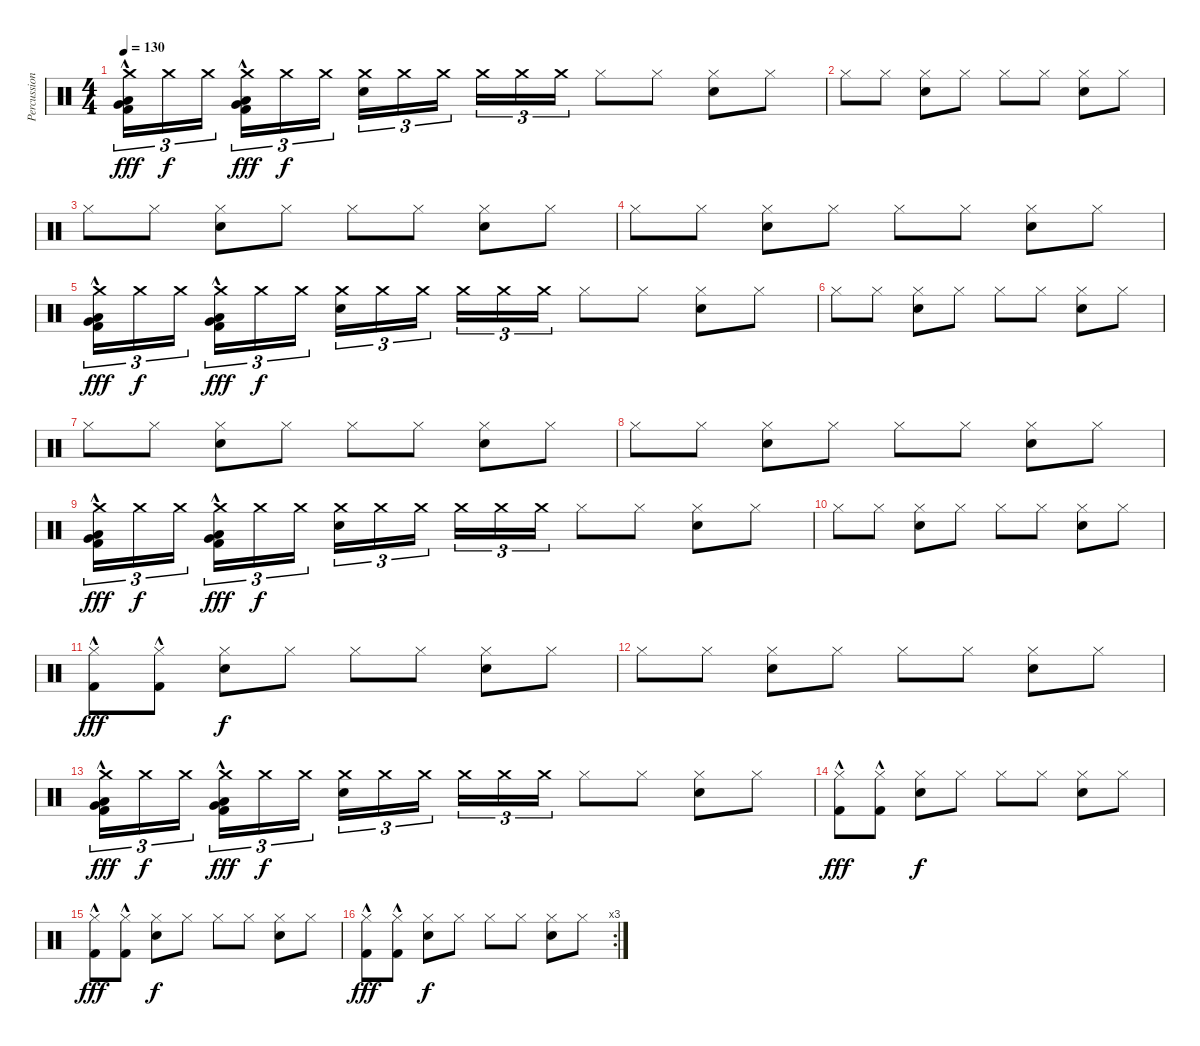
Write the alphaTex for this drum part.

\track ("Percussion" "Percussion") {instrument percussion}
\staff {score}
\articulation defaults
\ts (4 4)
\tempo 130
\clef neutral
\ks c
("Crash medium (hit)" "Low Floor Tom (hit)"{hac} "Very Low Tom (hit)"{hac} "Kick (hit) 2"{hac}).16{tu (3 2) dy fff} "Crash medium (hit)".16{tu (3 2) dy f} "Crash medium (hit)".16{tu (3 2) beam splitsecondary} ("Crash medium (hit)" "Low Floor Tom (hit)"{hac} "Very Low Tom (hit)"{hac} "Kick (hit) 2"{hac}).16{tu (3 2) dy fff} "Crash medium (hit)".16{tu (3 2) dy f} "Crash medium (hit)".16{tu (3 2)} ("Crash medium (hit)" "Snare (hit) 2").16{tu (3 2)} "Crash medium (hit)".16{tu (3 2)} "Crash medium (hit)".16{tu (3 2) beam splitsecondary} "Crash medium (hit)".16{tu (3 2)} "Crash medium (hit)".16{tu (3 2)} "Crash medium (hit)".16{tu (3 2)} "Hi-Hat (closed)".8 "Hi-Hat (closed)".8 ("Hi-Hat (closed)" "Snare (hit) 2").8 "Hi-Hat (closed)".8 |
"Hi-Hat (closed)".8 "Hi-Hat (closed)".8 ("Hi-Hat (closed)" "Snare (hit) 2").8 "Hi-Hat (closed)".8 "Hi-Hat (closed)".8 "Hi-Hat (closed)".8 ("Hi-Hat (closed)" "Snare (hit) 2").8 "Hi-Hat (closed)".8 |
"Hi-Hat (closed)".8 "Hi-Hat (closed)".8 ("Hi-Hat (closed)" "Snare (hit) 2").8 "Hi-Hat (closed)".8 "Hi-Hat (closed)".8 "Hi-Hat (closed)".8 ("Hi-Hat (closed)" "Snare (hit) 2").8 "Hi-Hat (closed)".8 |
"Hi-Hat (closed)".8 "Hi-Hat (closed)".8 ("Hi-Hat (closed)" "Snare (hit) 2").8 "Hi-Hat (closed)".8 "Hi-Hat (closed)".8 "Hi-Hat (closed)".8 ("Hi-Hat (closed)" "Snare (hit) 2").8 "Hi-Hat (closed)".8 |
("Crash medium (hit)" "Low Floor Tom (hit)"{hac} "Very Low Tom (hit)"{hac} "Kick (hit) 2"{hac}).16{tu (3 2) dy fff} "Crash medium (hit)".16{tu (3 2) dy f} "Crash medium (hit)".16{tu (3 2) beam splitsecondary} ("Crash medium (hit)" "Low Floor Tom (hit)"{hac} "Very Low Tom (hit)"{hac} "Kick (hit) 2"{hac}).16{tu (3 2) dy fff} "Crash medium (hit)".16{tu (3 2) dy f} "Crash medium (hit)".16{tu (3 2)} ("Crash medium (hit)" "Snare (hit) 2").16{tu (3 2)} "Crash medium (hit)".16{tu (3 2)} "Crash medium (hit)".16{tu (3 2) beam splitsecondary} "Crash medium (hit)".16{tu (3 2)} "Crash medium (hit)".16{tu (3 2)} "Crash medium (hit)".16{tu (3 2)} "Hi-Hat (closed)".8 "Hi-Hat (closed)".8 ("Hi-Hat (closed)" "Snare (hit) 2").8 "Hi-Hat (closed)".8 |
"Hi-Hat (closed)".8 "Hi-Hat (closed)".8 ("Hi-Hat (closed)" "Snare (hit) 2").8 "Hi-Hat (closed)".8 "Hi-Hat (closed)".8 "Hi-Hat (closed)".8 ("Hi-Hat (closed)" "Snare (hit) 2").8 "Hi-Hat (closed)".8 |
"Hi-Hat (closed)".8 "Hi-Hat (closed)".8 ("Hi-Hat (closed)" "Snare (hit) 2").8 "Hi-Hat (closed)".8 "Hi-Hat (closed)".8 "Hi-Hat (closed)".8 ("Hi-Hat (closed)" "Snare (hit) 2").8 "Hi-Hat (closed)".8 |
"Hi-Hat (closed)".8 "Hi-Hat (closed)".8 ("Hi-Hat (closed)" "Snare (hit) 2").8 "Hi-Hat (closed)".8 "Hi-Hat (closed)".8 "Hi-Hat (closed)".8 ("Hi-Hat (closed)" "Snare (hit) 2").8 "Hi-Hat (closed)".8 |
("Crash medium (hit)" "Low Floor Tom (hit)"{hac} "Very Low Tom (hit)"{hac} "Kick (hit) 2"{hac}).16{tu (3 2) dy fff} "Crash medium (hit)".16{tu (3 2) dy f} "Crash medium (hit)".16{tu (3 2) beam splitsecondary} ("Crash medium (hit)" "Low Floor Tom (hit)"{hac} "Very Low Tom (hit)"{hac} "Kick (hit) 2"{hac}).16{tu (3 2) dy fff} "Crash medium (hit)".16{tu (3 2) dy f} "Crash medium (hit)".16{tu (3 2)} ("Crash medium (hit)" "Snare (hit) 2").16{tu (3 2)} "Crash medium (hit)".16{tu (3 2)} "Crash medium (hit)".16{tu (3 2) beam splitsecondary} "Crash medium (hit)".16{tu (3 2)} "Crash medium (hit)".16{tu (3 2)} "Crash medium (hit)".16{tu (3 2)} "Hi-Hat (closed)".8 "Hi-Hat (closed)".8 ("Hi-Hat (closed)" "Snare (hit) 2").8 "Hi-Hat (closed)".8 |
"Hi-Hat (closed)".8 "Hi-Hat (closed)".8 ("Hi-Hat (closed)" "Snare (hit) 2").8 "Hi-Hat (closed)".8 "Hi-Hat (closed)".8 "Hi-Hat (closed)".8 ("Hi-Hat (closed)" "Snare (hit) 2").8 "Hi-Hat (closed)".8 |
("Hi-Hat (closed)" "Kick (hit) 2"{hac}).8{dy fff} ("Hi-Hat (closed)" "Kick (hit) 2"{hac}).8 ("Hi-Hat (closed)" "Snare (hit) 2").8{dy f} "Hi-Hat (closed)".8 "Hi-Hat (closed)".8 "Hi-Hat (closed)".8 ("Hi-Hat (closed)" "Snare (hit) 2").8 "Hi-Hat (closed)".8 |
"Hi-Hat (closed)".8 "Hi-Hat (closed)".8 ("Hi-Hat (closed)" "Snare (hit) 2").8 "Hi-Hat (closed)".8 "Hi-Hat (closed)".8 "Hi-Hat (closed)".8 ("Hi-Hat (closed)" "Snare (hit) 2").8 "Hi-Hat (closed)".8 |
("Crash medium (hit)" "Low Floor Tom (hit)"{hac} "Very Low Tom (hit)"{hac} "Kick (hit) 2"{hac}).16{tu (3 2) dy fff} "Crash medium (hit)".16{tu (3 2) dy f} "Crash medium (hit)".16{tu (3 2) beam splitsecondary} ("Crash medium (hit)" "Low Floor Tom (hit)"{hac} "Very Low Tom (hit)"{hac} "Kick (hit) 2"{hac}).16{tu (3 2) dy fff} "Crash medium (hit)".16{tu (3 2) dy f} "Crash medium (hit)".16{tu (3 2)} ("Crash medium (hit)" "Snare (hit) 2").16{tu (3 2)} "Crash medium (hit)".16{tu (3 2)} "Crash medium (hit)".16{tu (3 2) beam splitsecondary} "Crash medium (hit)".16{tu (3 2)} "Crash medium (hit)".16{tu (3 2)} "Crash medium (hit)".16{tu (3 2)} "Hi-Hat (closed)".8 "Hi-Hat (closed)".8 ("Hi-Hat (closed)" "Snare (hit) 2").8 "Hi-Hat (closed)".8 |
("Hi-Hat (closed)" "Kick (hit) 2"{hac}).8{dy fff} ("Hi-Hat (closed)" "Kick (hit) 2"{hac}).8 ("Hi-Hat (closed)" "Snare (hit) 2").8{dy f} "Hi-Hat (closed)".8 "Hi-Hat (closed)".8 "Hi-Hat (closed)".8 ("Hi-Hat (closed)" "Snare (hit) 2").8 "Hi-Hat (closed)".8 |
("Hi-Hat (closed)" "Kick (hit) 2"{hac}).8{dy fff} ("Hi-Hat (closed)" "Kick (hit) 2"{hac}).8 ("Hi-Hat (closed)" "Snare (hit) 2").8{dy f} "Hi-Hat (closed)".8 "Hi-Hat (closed)".8 "Hi-Hat (closed)".8 ("Hi-Hat (closed)" "Snare (hit) 2").8 "Hi-Hat (closed)".8 |
\rc 3
("Hi-Hat (closed)" "Kick (hit) 2"{hac}).8{dy fff} ("Hi-Hat (closed)" "Kick (hit) 2"{hac}).8 ("Hi-Hat (closed)" "Snare (hit) 2").8{dy f} "Hi-Hat (closed)".8 "Hi-Hat (closed)".8 "Hi-Hat (closed)".8 ("Hi-Hat (closed)" "Snare (hit) 2").8 "Hi-Hat (closed)".8
